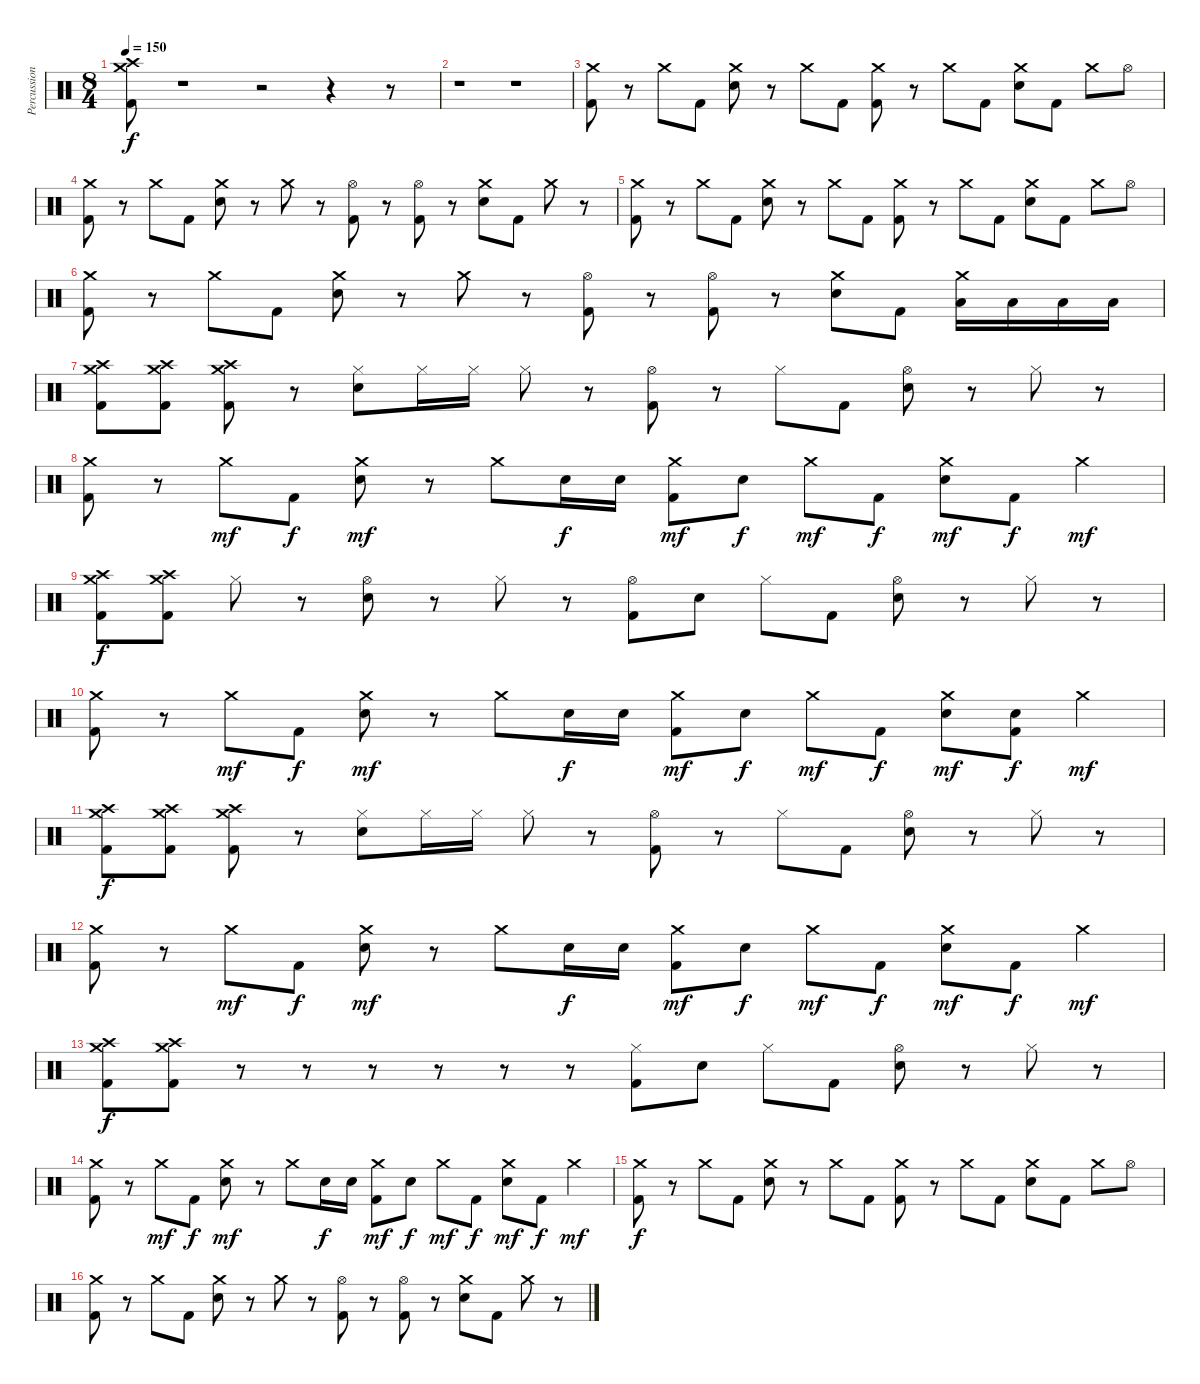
\track ("Percussion" "Percussion") {instrument percussion}
\staff {score}
\articulation defaults
\ts (8 4)
\tempo 150
\clef neutral
\ks c
("Crash medium (hit)" "Crash high (hit)" "Kick (hit) 2").8{dy f} r.1 r.2 r.4 r.8 |
r.1 r.1 |
("Crash medium (hit)" "Kick (hit) 2").8 r.8 "Crash medium (hit)".8 "Kick (hit) 2".8 ("Crash medium (hit)" "Electric Snare (hit)").8 r.8 "Crash medium (hit)".8 "Kick (hit) 2".8 ("Crash medium (hit)" "Kick (hit) 2").8 r.8 "Crash medium (hit)".8 "Kick (hit) 2".8 ("Crash medium (hit)" "Electric Snare (hit)").8 "Kick (hit) 2".8 "Crash medium (hit)".8 "Hi-Hat (open)".8 |
("Crash medium (hit)" "Kick (hit) 2").8 r.8 "Crash medium (hit)".8 "Kick (hit) 2".8 ("Crash medium (hit)" "Electric Snare (hit)").8 r.8 "Crash medium (hit)".8 r.8 ("Hi-Hat (open)" "Kick (hit) 2").8 r.8 ("Hi-Hat (open)" "Kick (hit) 2").8 r.8 ("Crash medium (hit)" "Electric Snare (hit)").8 "Kick (hit) 2".8 "Crash medium (hit)".8 r.8 |
("Crash medium (hit)" "Kick (hit) 2").8 r.8 "Crash medium (hit)".8 "Kick (hit) 2".8 ("Crash medium (hit)" "Electric Snare (hit)").8 r.8 "Crash medium (hit)".8 "Kick (hit) 2".8 ("Crash medium (hit)" "Kick (hit) 2").8 r.8 "Crash medium (hit)".8 "Kick (hit) 2".8 ("Crash medium (hit)" "Electric Snare (hit)").8 "Kick (hit) 2".8 "Crash medium (hit)".8 "Hi-Hat (open)".8 |
("Crash medium (hit)" "Kick (hit) 2").8 r.8 "Crash medium (hit)".8 "Kick (hit) 2".8 ("Crash medium (hit)" "Electric Snare (hit)").8 r.8 "Crash medium (hit)".8 r.8 ("Hi-Hat (open)" "Kick (hit) 2").8 r.8 ("Hi-Hat (open)" "Kick (hit) 2").8 r.8 ("Crash medium (hit)" "Electric Snare (hit)").8 "Kick (hit) 2".8 ("Crash medium (hit)" "Low Floor Tom (hit)").16 "Low Floor Tom (hit)".16 "Low Floor Tom (hit)".16 "Low Floor Tom (hit)".16 |
("Crash high (hit)" "Crash medium (hit)" "Kick (hit) 2").8 ("Crash high (hit)" "Crash medium (hit)" "Kick (hit) 2").8 ("Crash high (hit)" "Crash medium (hit)" "Kick (hit) 2").8 r.8 ("Electric Snare (hit)" "Hi-Hat (closed)").8 "Hi-Hat (closed)".16 "Hi-Hat (closed)".16 "Hi-Hat (closed)".8 r.8 ("Hi-Hat (open)" "Kick (hit) 2").8 r.8 "Hi-Hat (closed)".8 "Kick (hit) 2".8 ("Electric Snare (hit)" "Hi-Hat (open)").8 r.8 "Hi-Hat (closed)".8 r.8 |
("Crash medium (hit)" "Kick (hit) 2").8 r.8 "Crash medium (hit)".8{dy mf} "Kick (hit) 2".8{dy f} ("Electric Snare (hit)" "Crash medium (hit)").8{dy mf} r.8 "Crash medium (hit)".8 "Electric Snare (hit)".16{dy f} "Electric Snare (hit)".16 ("Crash medium (hit)" "Kick (hit) 2").8{dy mf} "Electric Snare (hit)".8{dy f} "Crash medium (hit)".8{dy mf} "Kick (hit) 2".8{dy f} ("Electric Snare (hit)" "Crash medium (hit)").8{dy mf} "Kick (hit) 2".8{dy f} "Crash medium (hit)".4{dy mf} |
("Crash high (hit)" "Crash medium (hit)" "Kick (hit) 2").8{dy f} ("Crash high (hit)" "Crash medium (hit)" "Kick (hit) 2").8 "Hi-Hat (closed)".8 r.8 ("Electric Snare (hit)" "Hi-Hat (open)").8 r.8 "Hi-Hat (closed)".8 r.8 ("Hi-Hat (open)" "Kick (hit) 2").8 "Electric Snare (hit)".8 "Hi-Hat (closed)".8 "Kick (hit) 2".8 ("Electric Snare (hit)" "Hi-Hat (open)").8 r.8 "Hi-Hat (closed)".8 r.8 |
("Crash medium (hit)" "Kick (hit) 2").8 r.8 "Crash medium (hit)".8{dy mf} "Kick (hit) 2".8{dy f} ("Electric Snare (hit)" "Crash medium (hit)").8{dy mf} r.8 "Crash medium (hit)".8 "Electric Snare (hit)".16{dy f} "Electric Snare (hit)".16 ("Crash medium (hit)" "Kick (hit) 2").8{dy mf} "Electric Snare (hit)".8{dy f} "Crash medium (hit)".8{dy mf} "Kick (hit) 2".8{dy f} ("Electric Snare (hit)" "Crash medium (hit)").8{dy mf} ("Electric Snare (hit)" "Kick (hit) 2").8{dy f} "Crash medium (hit)".4{dy mf} |
("Crash high (hit)" "Crash medium (hit)" "Kick (hit) 2").8{dy f} ("Crash high (hit)" "Crash medium (hit)" "Kick (hit) 2").8 ("Crash high (hit)" "Crash medium (hit)" "Kick (hit) 2").8 r.8 ("Electric Snare (hit)" "Hi-Hat (closed)").8 "Hi-Hat (closed)".16 "Hi-Hat (closed)".16 "Hi-Hat (closed)".8 r.8 ("Hi-Hat (open)" "Kick (hit) 2").8 r.8 "Hi-Hat (closed)".8 "Kick (hit) 2".8 ("Electric Snare (hit)" "Hi-Hat (open)").8 r.8 "Hi-Hat (closed)".8 r.8 |
("Crash medium (hit)" "Kick (hit) 2").8 r.8 "Crash medium (hit)".8{dy mf} "Kick (hit) 2".8{dy f} ("Electric Snare (hit)" "Crash medium (hit)").8{dy mf} r.8 "Crash medium (hit)".8 "Electric Snare (hit)".16{dy f} "Electric Snare (hit)".16 ("Crash medium (hit)" "Kick (hit) 2").8{dy mf} "Electric Snare (hit)".8{dy f} "Crash medium (hit)".8{dy mf} "Kick (hit) 2".8{dy f} ("Electric Snare (hit)" "Crash medium (hit)").8{dy mf} "Kick (hit) 2".8{dy f} "Crash medium (hit)".4{dy mf} |
("Crash high (hit)" "Crash medium (hit)" "Kick (hit) 2").8{dy f} ("Crash high (hit)" "Crash medium (hit)" "Kick (hit) 2").8 r.8 r.8 r.8 r.8 r.8 r.8 ("Hi-Hat (closed)" "Kick (hit) 2").8 "Electric Snare (hit)".8 "Hi-Hat (closed)".8 "Kick (hit) 2".8 ("Electric Snare (hit)" "Hi-Hat (open)").8 r.8 "Hi-Hat (closed)".8 r.8 |
("Crash medium (hit)" "Kick (hit) 2").8 r.8 "Crash medium (hit)".8{dy mf} "Kick (hit) 2".8{dy f} ("Electric Snare (hit)" "Crash medium (hit)").8{dy mf} r.8 "Crash medium (hit)".8 "Electric Snare (hit)".16{dy f} "Electric Snare (hit)".16 ("Crash medium (hit)" "Kick (hit) 2").8{dy mf} "Electric Snare (hit)".8{dy f} "Crash medium (hit)".8{dy mf} "Kick (hit) 2".8{dy f} ("Electric Snare (hit)" "Crash medium (hit)").8{dy mf} "Kick (hit) 2".8{dy f} "Crash medium (hit)".4{dy mf} |
("Crash medium (hit)" "Kick (hit) 2").8{dy f} r.8 "Crash medium (hit)".8 "Kick (hit) 2".8 ("Crash medium (hit)" "Electric Snare (hit)").8 r.8 "Crash medium (hit)".8 "Kick (hit) 2".8 ("Crash medium (hit)" "Kick (hit) 2").8 r.8 "Crash medium (hit)".8 "Kick (hit) 2".8 ("Crash medium (hit)" "Electric Snare (hit)").8 "Kick (hit) 2".8 "Crash medium (hit)".8 "Hi-Hat (open)".8 |
("Crash medium (hit)" "Kick (hit) 2").8 r.8 "Crash medium (hit)".8 "Kick (hit) 2".8 ("Crash medium (hit)" "Electric Snare (hit)").8 r.8 "Crash medium (hit)".8 r.8 ("Hi-Hat (open)" "Kick (hit) 2").8 r.8 ("Hi-Hat (open)" "Kick (hit) 2").8 r.8 ("Crash medium (hit)" "Electric Snare (hit)").8 "Kick (hit) 2".8 "Crash medium (hit)".8 r.8
